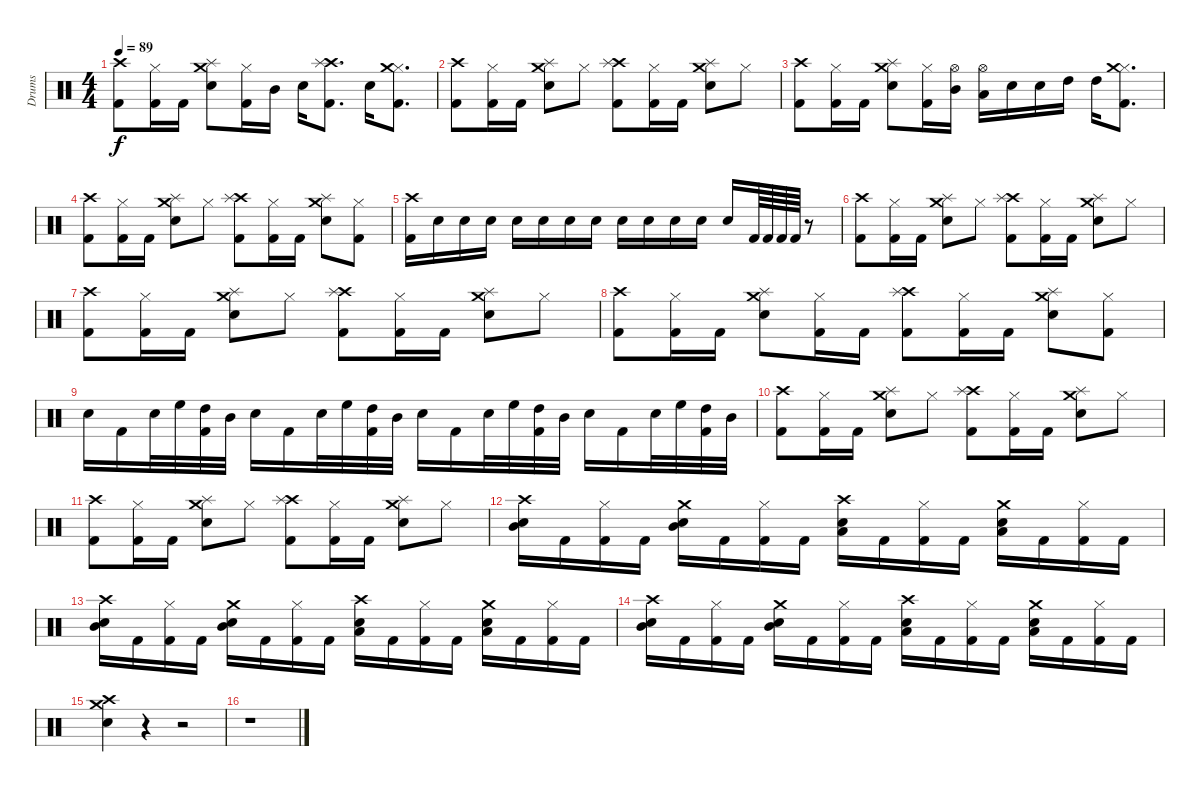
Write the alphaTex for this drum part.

\track ("Drums" "Drums") {instrument percussion}
\staff {score}
\articulation defaults
\ts (4 4)
\tempo 89
\clef neutral
\ks c
("Kick (hit) 2" "Crash high (hit)").8{dy f} ("Kick (hit) 2" "Hi-Hat (closed)").16 "Kick (hit) 2".16 ("Snare (hit) 2" "Crash medium (hit)" "Splash (hit)").8 ("Kick (hit) 2" "Hi-Hat (closed)").16 "Mid Tom (hit)".16 "Snare (hit) 2".16 ("Kick (hit) 2" "Crash high (hit)" "Splash (hit)").8{d} "Snare (hit) 2".16 ("Kick (hit) 2" "Hi-Hat (closed)" "Crash medium (hit)").8{d} |
("Kick (hit) 2" "Crash high (hit)").8 ("Kick (hit) 2" "Hi-Hat (closed)").16 "Kick (hit) 2".16 ("Snare (hit) 2" "Crash medium (hit)" "Splash (hit)").8 "Hi-Hat (closed)".8 ("Kick (hit) 2" "Crash high (hit)" "Splash (hit)").8 ("Kick (hit) 2" "Hi-Hat (closed)").16 "Kick (hit) 2".16 ("Snare (hit) 2" "Crash medium (hit)" "Splash (hit)").8 "Hi-Hat (closed)".8 |
("Kick (hit) 2" "Crash high (hit)").8 ("Kick (hit) 2" "Hi-Hat (closed)").16 "Kick (hit) 2".16 ("Snare (hit) 2" "Crash medium (hit)" "Splash (hit)").8 ("Kick (hit) 2" "Hi-Hat (closed)").16 ("Mid Tom (hit)" "Hi-Hat (open)").16 ("Low Tom (hit)" "Hi-Hat (open)").16 "Snare (hit) 2".16 "Snare (hit) 2".16 "High Tom (hit)".16 "High Tom (hit)".16 ("Kick (hit) 2" "Hi-Hat (closed)" "Crash medium (hit)").8{d} |
("Kick (hit) 2" "Crash high (hit)").8 ("Kick (hit) 2" "Hi-Hat (closed)").16 "Kick (hit) 2".16 ("Snare (hit) 2" "Crash medium (hit)" "Splash (hit)").8 "Hi-Hat (closed)".8 ("Kick (hit) 2" "Crash high (hit)" "Splash (hit)").8 ("Kick (hit) 2" "Hi-Hat (closed)").16 "Kick (hit) 2".16 ("Snare (hit) 2" "Crash medium (hit)" "Splash (hit)").8 ("Kick (hit) 2" "Hi-Hat (closed)").8 |
("Kick (hit) 2" "Crash high (hit)").16 "Snare (hit) 2".16 "Snare (hit) 2".16 "Snare (hit) 2".16 "Snare (hit) 2".16 "Snare (hit) 2".16 "Snare (hit) 2".16 "Snare (hit) 2".16 "Snare (hit) 2".16 "Snare (hit) 2".16 "Snare (hit) 2".16 "Snare (hit) 2".16 "Snare (hit) 2".16 "Kick (hit) 2".64 "Kick (hit) 2".64 "Kick (hit) 2".64 "Kick (hit) 2".64 r.8 |
("Kick (hit) 2" "Crash high (hit)").8 ("Kick (hit) 2" "Hi-Hat (closed)").16 "Kick (hit) 2".16 ("Snare (hit) 2" "Crash medium (hit)" "Splash (hit)").8 "Hi-Hat (closed)".8 ("Kick (hit) 2" "Crash high (hit)" "Splash (hit)").8 ("Kick (hit) 2" "Hi-Hat (closed)").16 "Kick (hit) 2".16 ("Snare (hit) 2" "Crash medium (hit)" "Splash (hit)").8 "Hi-Hat (closed)".8 |
("Kick (hit) 2" "Crash high (hit)").8 ("Kick (hit) 2" "Hi-Hat (closed)").16 "Kick (hit) 2".16 ("Snare (hit) 2" "Crash medium (hit)" "Splash (hit)").8 "Hi-Hat (closed)".8 ("Kick (hit) 2" "Crash high (hit)" "Splash (hit)").8 ("Kick (hit) 2" "Hi-Hat (closed)").16 "Kick (hit) 2".16 ("Snare (hit) 2" "Crash medium (hit)" "Splash (hit)").8 "Hi-Hat (closed)".8 |
("Kick (hit) 2" "Crash high (hit)").8 ("Kick (hit) 2" "Hi-Hat (closed)").16 "Kick (hit) 2".16 ("Snare (hit) 2" "Crash medium (hit)" "Splash (hit)").8 ("Kick (hit) 2" "Hi-Hat (closed)").16 "Kick (hit) 2".16 ("Kick (hit) 2" "Crash high (hit)" "Splash (hit)").8 ("Kick (hit) 2" "Hi-Hat (closed)").16 "Kick (hit) 2".16 ("Snare (hit) 2" "Crash medium (hit)" "Splash (hit)").8 ("Kick (hit) 2" "Hi-Hat (closed)").8 |
"Snare (hit) 2".16 "Kick (hit) 2".16 "Snare (hit) 2".32 "High Floor Tom (hit)".32 ("Kick (hit) 2" "High Tom (hit)").32 "Mid Tom (hit)".32 "Snare (hit) 2".16 "Kick (hit) 2".16 "Snare (hit) 2".32 "High Floor Tom (hit)".32 ("Kick (hit) 2" "High Tom (hit)").32 "Mid Tom (hit)".32 "Snare (hit) 2".16 "Kick (hit) 2".16 "Snare (hit) 2".32 "High Floor Tom (hit)".32 ("Kick (hit) 2" "High Tom (hit)").32 "Mid Tom (hit)".32 "Snare (hit) 2".16 "Kick (hit) 2".16 "Snare (hit) 2".32 "High Floor Tom (hit)".32 ("Kick (hit) 2" "High Tom (hit)").32 "Mid Tom (hit)".32 |
("Kick (hit) 2" "Crash high (hit)").8 ("Kick (hit) 2" "Hi-Hat (closed)").16 "Kick (hit) 2".16 ("Snare (hit) 2" "Crash medium (hit)" "Splash (hit)").8 "Hi-Hat (closed)".8 ("Kick (hit) 2" "Crash high (hit)" "Splash (hit)").8 ("Kick (hit) 2" "Hi-Hat (closed)").16 "Kick (hit) 2".16 ("Snare (hit) 2" "Crash medium (hit)" "Splash (hit)").8 "Hi-Hat (closed)".8 |
("Kick (hit) 2" "Crash high (hit)").8 ("Kick (hit) 2" "Hi-Hat (closed)").16 "Kick (hit) 2".16 ("Snare (hit) 2" "Crash medium (hit)" "Splash (hit)").8 "Hi-Hat (closed)".8 ("Kick (hit) 2" "Crash high (hit)" "Splash (hit)").8 ("Kick (hit) 2" "Hi-Hat (closed)").16 "Kick (hit) 2".16 ("Snare (hit) 2" "Crash medium (hit)" "Splash (hit)").8 "Hi-Hat (closed)".8 |
("Mid Tom (hit)" "Snare (hit) 2" "Crash high (hit)").16 "Kick (hit) 2".16 ("Kick (hit) 2" "Hi-Hat (closed)").16 "Kick (hit) 2".16 ("Mid Tom (hit)" "Snare (hit) 2" "Crash medium (hit)").16 "Kick (hit) 2".16 ("Kick (hit) 2" "Hi-Hat (closed)").16 "Kick (hit) 2".16 ("Low Tom (hit)" "Snare (hit) 2" "Crash high (hit)").16 "Kick (hit) 2".16 ("Kick (hit) 2" "Hi-Hat (closed)").16 "Kick (hit) 2".16 ("Low Tom (hit)" "Snare (hit) 2" "Crash medium (hit)").16 "Kick (hit) 2".16 ("Kick (hit) 2" "Hi-Hat (closed)").16 "Kick (hit) 2".16 |
("Mid Tom (hit)" "Snare (hit) 2" "Crash high (hit)").16 "Kick (hit) 2".16 ("Kick (hit) 2" "Hi-Hat (closed)").16 "Kick (hit) 2".16 ("Mid Tom (hit)" "Snare (hit) 2" "Crash medium (hit)").16 "Kick (hit) 2".16 ("Kick (hit) 2" "Hi-Hat (closed)").16 "Kick (hit) 2".16 ("Low Tom (hit)" "Snare (hit) 2" "Crash high (hit)").16 "Kick (hit) 2".16 ("Kick (hit) 2" "Hi-Hat (closed)").16 "Kick (hit) 2".16 ("Low Tom (hit)" "Snare (hit) 2" "Crash medium (hit)").16 "Kick (hit) 2".16 ("Kick (hit) 2" "Hi-Hat (closed)").16 "Kick (hit) 2".16 |
("Mid Tom (hit)" "Snare (hit) 2" "Crash high (hit)").16 "Kick (hit) 2".16 ("Kick (hit) 2" "Hi-Hat (closed)").16 "Kick (hit) 2".16 ("Mid Tom (hit)" "Snare (hit) 2" "Crash medium (hit)").16 "Kick (hit) 2".16 ("Kick (hit) 2" "Hi-Hat (closed)").16 "Kick (hit) 2".16 ("Low Tom (hit)" "Snare (hit) 2" "Crash high (hit)").16 "Kick (hit) 2".16 ("Kick (hit) 2" "Hi-Hat (closed)").16 "Kick (hit) 2".16 ("Low Tom (hit)" "Snare (hit) 2" "Crash medium (hit)").16 "Kick (hit) 2".16 ("Kick (hit) 2" "Hi-Hat (closed)").16 "Kick (hit) 2".16 |
("Snare (hit) 2" "Crash high (hit)" "Crash medium (hit)").4 r.4 r.2 |
r.1
